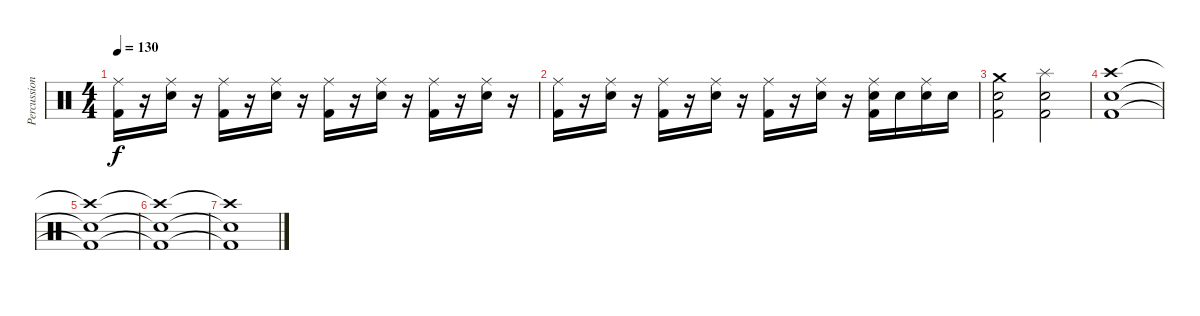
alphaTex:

\track ("Percussion" "Percussion") {instrument percussion}
\staff {score}
\articulation defaults
\ts (4 4)
\tempo 130
\clef neutral
\ks c
("Kick (hit) 2" "Ride (middle)").16{dy f} r.16 ("Snare (hit) 2" "Ride (middle)").16 r.16 ("Kick (hit) 2" "Ride (middle)").16 r.16 ("Snare (hit) 2" "Ride (middle)").16 r.16 ("Kick (hit) 2" "Ride (middle)").16 r.16 ("Snare (hit) 2" "Ride (middle)").16 r.16 ("Kick (hit) 2" "Ride (middle)").16 r.16 ("Snare (hit) 2" "Ride (middle)").16 r.16 |
("Kick (hit) 2" "Ride (middle)").16 r.16 ("Snare (hit) 2" "Ride (middle)").16 r.16 ("Kick (hit) 2" "Ride (middle)").16 r.16 ("Snare (hit) 2" "Ride (middle)").16 r.16 ("Kick (hit) 2" "Ride (middle)").16 r.16 ("Snare (hit) 2" "Ride (middle)").16 r.16 ("Kick (hit) 2" "Snare (hit) 2" "Ride (middle)").16 "Snare (hit) 2".16 ("Snare (hit) 2" "Ride (middle)").16 "Snare (hit) 2".16 |
("Kick (hit) 2" "Snare (hit) 2" "Crash medium (hit)").2 ("Kick (hit) 2" "Snare (hit) 2" "Splash (hit)").2 |
("Kick (hit) 2" "Snare (hit) 2" "Crash high (hit)").1 |
("Kick (hit) 2"{t} "Snare (hit) 2"{t} "Crash high (hit)"{t}).1 |
("Kick (hit) 2"{t} "Snare (hit) 2"{t} "Crash high (hit)"{t}).1 |
("Kick (hit) 2"{t} "Snare (hit) 2"{t} "Crash high (hit)"{t}).1
